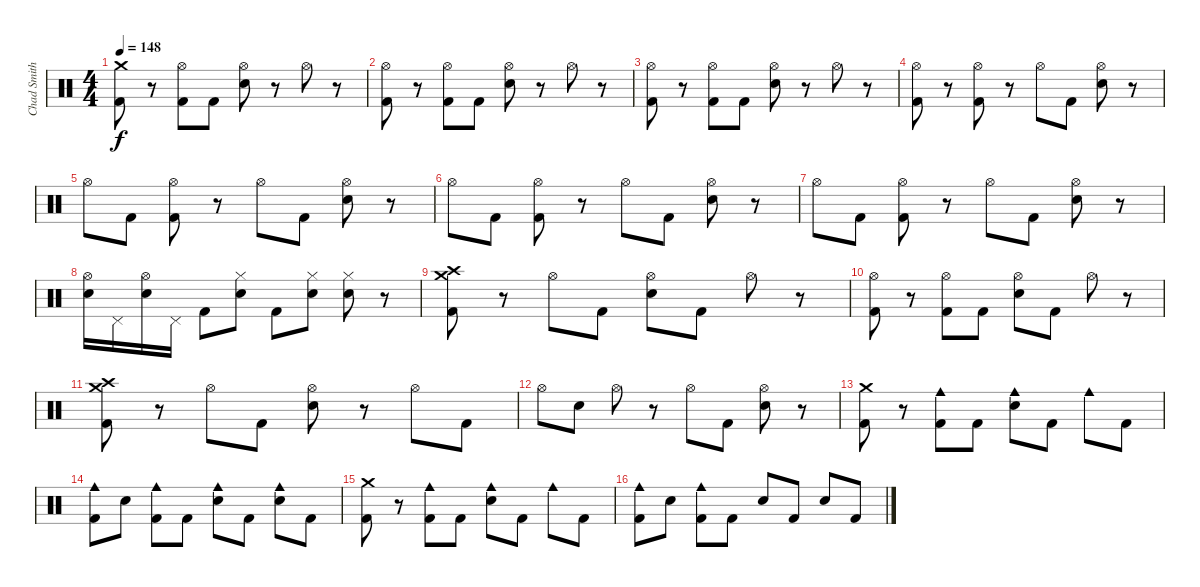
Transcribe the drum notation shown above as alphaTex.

\track ("Chad Smith" "Chad Smith") {instrument percussion}
\staff {score}
\articulation defaults
\ts (4 4)
\tempo 148
\clef neutral
\ks c
("Crash medium (hit)" "Kick (hit) 2").8{dy f} r.8 ("Hi-Hat (open)" "Kick (hit) 2").8 "Kick (hit) 2".8 ("Hi-Hat (open)" "Snare (hit) 2").8 r.8 "Hi-Hat (open)".8 r.8 |
("Hi-Hat (open)" "Kick (hit) 2").8 r.8 ("Hi-Hat (open)" "Kick (hit) 2").8 "Kick (hit) 2".8 ("Hi-Hat (open)" "Snare (hit) 2").8 r.8 "Hi-Hat (open)".8 r.8 |
("Hi-Hat (open)" "Kick (hit) 2").8 r.8 ("Hi-Hat (open)" "Kick (hit) 2").8 "Kick (hit) 2".8 ("Hi-Hat (open)" "Snare (hit) 2").8 r.8 "Hi-Hat (open)".8 r.8 |
("Hi-Hat (open)" "Kick (hit) 2").8 r.8 ("Hi-Hat (open)" "Kick (hit) 2").8 r.8 "Hi-Hat (open)".8 "Kick (hit) 2".8 ("Hi-Hat (open)" "Snare (hit) 2").8 r.8 |
"Hi-Hat (open)".8 "Kick (hit) 2".8 ("Hi-Hat (open)" "Kick (hit) 2").8 r.8 "Hi-Hat (open)".8 "Kick (hit) 2".8 ("Hi-Hat (open)" "Snare (hit) 2").8 r.8 |
"Hi-Hat (open)".8 "Kick (hit) 2".8 ("Hi-Hat (open)" "Kick (hit) 2").8 r.8 "Hi-Hat (open)".8 "Kick (hit) 2".8 ("Hi-Hat (open)" "Snare (hit) 2").8 r.8 |
"Hi-Hat (open)".8 "Kick (hit) 2".8 ("Hi-Hat (open)" "Kick (hit) 2").8 r.8 "Hi-Hat (open)".8 "Kick (hit) 2".8 ("Hi-Hat (open)" "Snare (hit) 2").8 r.8 |
("Hi-Hat (open)" "Snare (hit) 2").16 "Pedal Hi-Hat (hit)".16 ("Hi-Hat (open)" "Snare (hit) 2").16 "Pedal Hi-Hat (hit)".16 "Kick (hit) 2".8 ("Hi-Hat (closed)" "Snare (hit) 2").8 "Kick (hit) 2".8 ("Hi-Hat (closed)" "Snare (hit) 2").8 ("Hi-Hat (closed)" "Snare (hit) 2").8 r.8 |
("Crash medium (hit)" "Crash high (hit)" "Kick (hit) 2").8 r.8 "Hi-Hat (open)".8 "Kick (hit) 2".8 ("Hi-Hat (open)" "Snare (hit) 2").8 "Kick (hit) 2".8 "Hi-Hat (open)".8 r.8 |
("Hi-Hat (open)" "Kick (hit) 2").8 r.8 ("Hi-Hat (open)" "Kick (hit) 2").8 "Kick (hit) 2".8 ("Hi-Hat (open)" "Snare (hit) 2").8 "Kick (hit) 2".8 "Hi-Hat (open)".8 r.8 |
("Crash medium (hit)" "Crash high (hit)" "Kick (hit) 2").8 r.8 "Hi-Hat (open)".8 "Kick (hit) 2".8 ("Hi-Hat (open)" "Snare (hit) 2").8 r.8 "Hi-Hat (open)".8 "Kick (hit) 2".8 |
"Hi-Hat (open)".8 "Snare (hit) 2".8 "Hi-Hat (open)".8 r.8 "Hi-Hat (open)".8 "Kick (hit) 2".8 ("Hi-Hat (open)" "Snare (hit) 2").8 r.8 |
("Crash medium (hit)" "Kick (hit) 2").8 r.8 ("Cowbell medium (hit)" "Kick (hit) 2").8 "Kick (hit) 2".8 ("Cowbell medium (hit)" "Snare (hit) 2").8 "Kick (hit) 2".8 "Cowbell medium (hit)".8 "Kick (hit) 2".8 |
("Cowbell medium (hit)" "Kick (hit) 2").8 "Snare (hit) 2".8 ("Cowbell medium (hit)" "Kick (hit) 2").8 "Kick (hit) 2".8 ("Cowbell medium (hit)" "Snare (hit) 2").8 "Kick (hit) 2".8 ("Cowbell medium (hit)" "Snare (hit) 2").8 "Kick (hit) 2".8 |
("Crash medium (hit)" "Kick (hit) 2").8 r.8 ("Cowbell medium (hit)" "Kick (hit) 2").8 "Kick (hit) 2".8 ("Cowbell medium (hit)" "Snare (hit) 2").8 "Kick (hit) 2".8 "Cowbell medium (hit)".8 "Kick (hit) 2".8 |
("Cowbell medium (hit)" "Kick (hit) 2").8 "Snare (hit) 2".8 ("Cowbell medium (hit)" "Kick (hit) 2").8 "Kick (hit) 2".8 "Snare (hit) 2".8 "Kick (hit) 2".8 "Snare (hit) 2".8 "Kick (hit) 2".8
